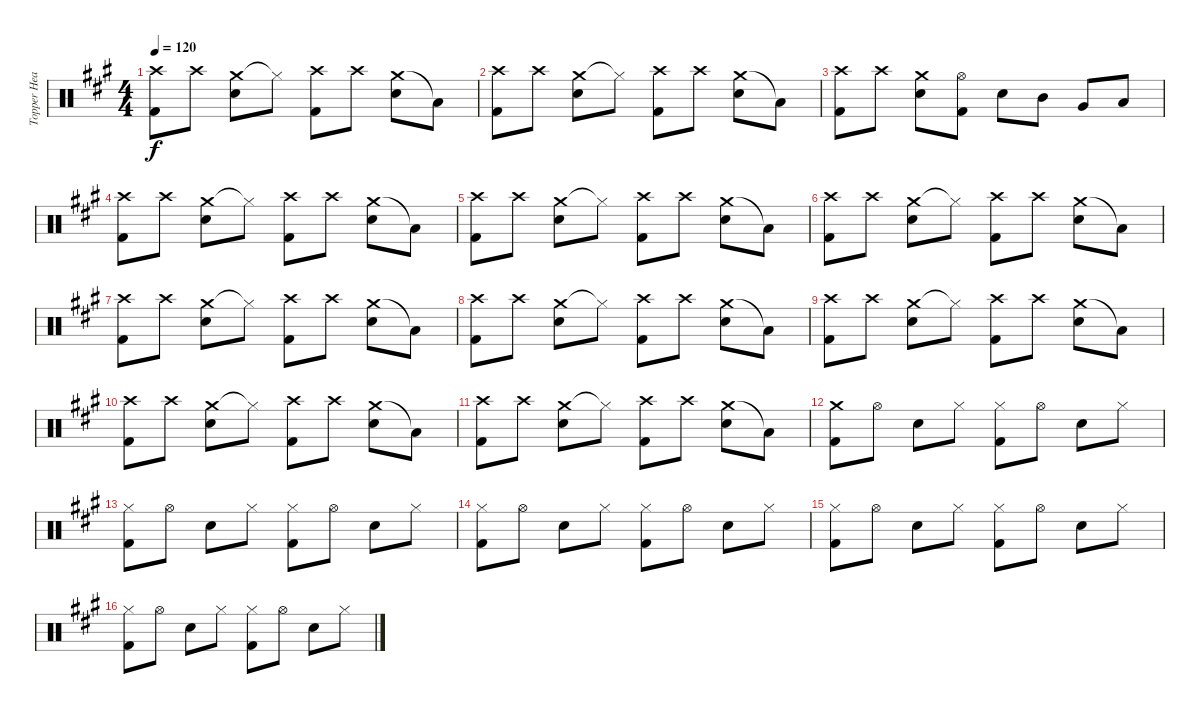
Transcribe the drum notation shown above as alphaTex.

\track ("Topper Headon (Drum)" "Topper Hea") {instrument percussion}
\staff {score}
\articulation defaults
\ts (4 4)
\tempo 120
\clef neutral
\ks a
("Crash high (hit)" "Kick (hit) 2").8{dy f} "Crash high (hit)".8 ("Crash medium (hit)" "Electric Snare (hit)").8 "Hi-Hat (closed)"{t}.8 ("Crash high (hit)" "Kick (hit) 2").8 "Crash high (hit)".8 ("Crash medium (hit)" "Electric Snare (hit)").8 "Low Floor Tom (hit)"{t}.8 |
("Crash high (hit)" "Kick (hit) 2").8 "Crash high (hit)".8 ("Crash medium (hit)" "Electric Snare (hit)").8 "Hi-Hat (closed)"{t}.8 ("Crash high (hit)" "Kick (hit) 2").8 "Crash high (hit)".8 ("Crash medium (hit)" "Electric Snare (hit)").8 "Low Floor Tom (hit)"{t}.8 |
("Crash high (hit)" "Kick (hit) 2").8 "Crash high (hit)".8 ("Crash medium (hit)" "Electric Snare (hit)").8 ("Hi-Hat (open)" "Kick (hit) 2").8 "Electric Snare (hit)".8 "Mid Tom (hit)".8 "Very Low Tom (hit)".8 "Low Floor Tom (hit)".8 |
("Crash high (hit)" "Kick (hit) 2").8 "Crash high (hit)".8 ("Crash medium (hit)" "Electric Snare (hit)").8 "Hi-Hat (closed)"{t}.8 ("Crash high (hit)" "Kick (hit) 2").8 "Crash high (hit)".8 ("Crash medium (hit)" "Electric Snare (hit)").8 "Low Floor Tom (hit)"{t}.8 |
("Crash high (hit)" "Kick (hit) 2").8 "Crash high (hit)".8 ("Crash medium (hit)" "Electric Snare (hit)").8 "Hi-Hat (closed)"{t}.8 ("Crash high (hit)" "Kick (hit) 2").8 "Crash high (hit)".8 ("Crash medium (hit)" "Electric Snare (hit)").8 "Low Floor Tom (hit)"{t}.8 |
("Crash high (hit)" "Kick (hit) 2").8 "Crash high (hit)".8 ("Crash medium (hit)" "Electric Snare (hit)").8 "Hi-Hat (closed)"{t}.8 ("Crash high (hit)" "Kick (hit) 2").8 "Crash high (hit)".8 ("Crash medium (hit)" "Electric Snare (hit)").8 "Low Floor Tom (hit)"{t}.8 |
("Crash high (hit)" "Kick (hit) 2").8 "Crash high (hit)".8 ("Crash medium (hit)" "Electric Snare (hit)").8 "Hi-Hat (closed)"{t}.8 ("Crash high (hit)" "Kick (hit) 2").8 "Crash high (hit)".8 ("Crash medium (hit)" "Electric Snare (hit)").8 "Low Floor Tom (hit)"{t}.8 |
("Crash high (hit)" "Kick (hit) 2").8 "Crash high (hit)".8 ("Crash medium (hit)" "Electric Snare (hit)").8 "Hi-Hat (closed)"{t}.8 ("Crash high (hit)" "Kick (hit) 2").8 "Crash high (hit)".8 ("Crash medium (hit)" "Electric Snare (hit)").8 "Low Floor Tom (hit)"{t}.8 |
("Crash high (hit)" "Kick (hit) 2").8 "Crash high (hit)".8 ("Crash medium (hit)" "Electric Snare (hit)").8 "Hi-Hat (closed)"{t}.8 ("Crash high (hit)" "Kick (hit) 2").8 "Crash high (hit)".8 ("Crash medium (hit)" "Electric Snare (hit)").8 "Low Floor Tom (hit)"{t}.8 |
("Crash high (hit)" "Kick (hit) 2").8 "Crash high (hit)".8 ("Crash medium (hit)" "Electric Snare (hit)").8 "Hi-Hat (closed)"{t}.8 ("Crash high (hit)" "Kick (hit) 2").8 "Crash high (hit)".8 ("Crash medium (hit)" "Electric Snare (hit)").8 "Low Floor Tom (hit)"{t}.8 |
("Crash high (hit)" "Kick (hit) 2").8 "Crash high (hit)".8 ("Crash medium (hit)" "Electric Snare (hit)").8 "Hi-Hat (closed)"{t}.8 ("Crash high (hit)" "Kick (hit) 2").8 "Crash high (hit)".8 ("Crash medium (hit)" "Electric Snare (hit)").8 "Low Floor Tom (hit)"{t}.8 |
("Crash medium (hit)" "Kick (hit) 2").8 "Hi-Hat (open)".8 "Electric Snare (hit)".8 "Hi-Hat (closed)".8 ("Hi-Hat (closed)" "Kick (hit) 2").8 "Hi-Hat (open)".8 "Electric Snare (hit)".8 "Hi-Hat (closed)".8 |
("Hi-Hat (closed)" "Kick (hit) 2").8 "Hi-Hat (open)".8 "Electric Snare (hit)".8 "Hi-Hat (closed)".8 ("Hi-Hat (closed)" "Kick (hit) 2").8 "Hi-Hat (open)".8 "Electric Snare (hit)".8 "Hi-Hat (closed)".8 |
("Hi-Hat (closed)" "Kick (hit) 2").8 "Hi-Hat (open)".8 "Electric Snare (hit)".8 "Hi-Hat (closed)".8 ("Hi-Hat (closed)" "Kick (hit) 2").8 "Hi-Hat (open)".8 "Electric Snare (hit)".8 "Hi-Hat (closed)".8 |
("Hi-Hat (closed)" "Kick (hit) 2").8 "Hi-Hat (open)".8 "Electric Snare (hit)".8 "Hi-Hat (closed)".8 ("Hi-Hat (closed)" "Kick (hit) 2").8 "Hi-Hat (open)".8 "Electric Snare (hit)".8 "Hi-Hat (closed)".8 |
("Hi-Hat (closed)" "Kick (hit) 2").8 "Hi-Hat (open)".8 "Electric Snare (hit)".8 "Hi-Hat (closed)".8 ("Hi-Hat (closed)" "Kick (hit) 2").8 "Hi-Hat (open)".8 "Electric Snare (hit)".8 "Hi-Hat (closed)".8
